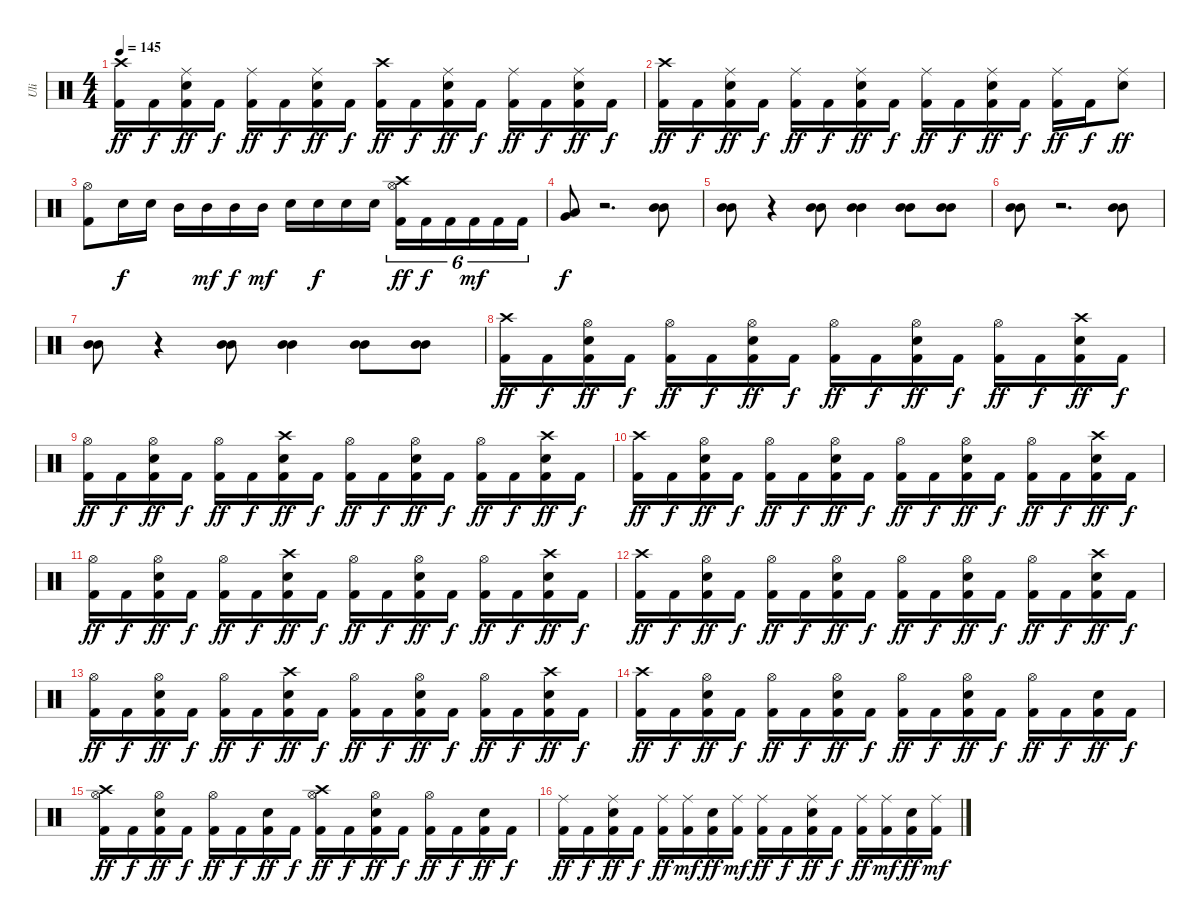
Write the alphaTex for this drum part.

\track ("Uli" "Uli") {instrument percussion}
\staff {score}
\articulation defaults
\ts (4 4)
\tempo 145
\clef neutral
\ks c
("Crash high (hit)" "Kick (hit) 2").16{dy ff} "Kick (hit) 2".16{dy f} ("Ride (middle)" "Electric Snare (hit)" "Kick (hit) 2").16{dy ff} "Kick (hit) 2".16{dy f} ("Ride (middle)" "Kick (hit) 2").16{dy ff} "Kick (hit) 2".16{dy f} ("Ride (middle)" "Electric Snare (hit)" "Kick (hit) 2").16{dy ff} "Kick (hit) 2".16{dy f} ("Crash high (hit)" "Kick (hit) 2").16{dy ff} "Kick (hit) 2".16{dy f} ("Ride (middle)" "Electric Snare (hit)" "Kick (hit) 2").16{dy ff} "Kick (hit) 2".16{dy f} ("Ride (middle)" "Kick (hit) 2").16{dy ff} "Kick (hit) 2".16{dy f} ("Ride (middle)" "Electric Snare (hit)" "Kick (hit) 2").16{dy ff} "Kick (hit) 2".16{dy f} |
("Crash high (hit)" "Kick (hit) 2").16{dy ff} "Kick (hit) 2".16{dy f} ("Ride (middle)" "Electric Snare (hit)" "Kick (hit) 2").16{dy ff} "Kick (hit) 2".16{dy f} ("Ride (middle)" "Kick (hit) 2").16{dy ff} "Kick (hit) 2".16{dy f} ("Ride (middle)" "Electric Snare (hit)" "Kick (hit) 2").16{dy ff} "Kick (hit) 2".16{dy f} ("Ride (middle)" "Kick (hit) 2").16{dy ff} "Kick (hit) 2".16{dy f} ("Ride (middle)" "Electric Snare (hit)" "Kick (hit) 2").16{dy ff} "Kick (hit) 2".16{dy f} ("Ride (middle)" "Kick (hit) 2").16{dy ff} "Kick (hit) 2".16{dy f} ("Ride (middle)" "Electric Snare (hit)").8{dy ff} |
("Hi-Hat (open)" "Kick (hit) 2").8 "Electric Snare (hit)".16{dy f} "Electric Snare (hit)".16 "Mid Tom (hit)".16 "Mid Tom (hit)".16{dy mf} "Mid Tom (hit)".16{dy f} "Mid Tom (hit)".16{dy mf} "Electric Snare (hit)".16 "Electric Snare (hit)".16{dy f} "Electric Snare (hit)".16 "Electric Snare (hit)".16 ("Crash high (hit)" "Hi-Hat (open)" "Kick (hit) 2").16{tu (6 4) dy ff} "Kick (hit) 2".16{tu (6 4) dy f} "Kick (hit) 2".16{tu (6 4)} "Kick (hit) 2".16{tu (6 4) dy mf} "Kick (hit) 2".16{tu (6 4)} "Kick (hit) 2".16{tu (6 4)} |
("Low Tom (hit)" "Very Low Tom (hit)").8{dy f} r.2{d} ("Mid Tom (hit)" "Mid Tom (hit)").8 |
("Mid Tom (hit)" "Mid Tom (hit)").8 r.4 ("Mid Tom (hit)" "Mid Tom (hit)").8 ("Mid Tom (hit)" "Mid Tom (hit)").4 ("Mid Tom (hit)" "Mid Tom (hit)").8 ("Mid Tom (hit)" "Mid Tom (hit)").8 |
("Mid Tom (hit)" "Mid Tom (hit)").8 r.2{d} ("Mid Tom (hit)" "Mid Tom (hit)").8 |
("Mid Tom (hit)" "Mid Tom (hit)").8 r.4 ("Mid Tom (hit)" "Mid Tom (hit)").8 ("Mid Tom (hit)" "Mid Tom (hit)").4 ("Mid Tom (hit)" "Mid Tom (hit)").8 ("Mid Tom (hit)" "Mid Tom (hit)").8 |
("Crash high (hit)" "Kick (hit) 2").16{dy ff} "Kick (hit) 2".16{dy f} ("Hi-Hat (open)" "Electric Snare (hit)" "Kick (hit) 2").16{dy ff} "Kick (hit) 2".16{dy f} ("Hi-Hat (open)" "Kick (hit) 2").16{dy ff} "Kick (hit) 2".16{dy f} ("Hi-Hat (open)" "Electric Snare (hit)" "Kick (hit) 2").16{dy ff} "Kick (hit) 2".16{dy f} ("Hi-Hat (open)" "Kick (hit) 2").16{dy ff} "Kick (hit) 2".16{dy f} ("Hi-Hat (open)" "Electric Snare (hit)" "Kick (hit) 2").16{dy ff} "Kick (hit) 2".16{dy f} ("Hi-Hat (open)" "Kick (hit) 2").16{dy ff} "Kick (hit) 2".16{dy f} ("Crash high (hit)" "Electric Snare (hit)" "Kick (hit) 2").16{dy ff} "Kick (hit) 2".16{dy f} |
("Hi-Hat (open)" "Kick (hit) 2").16{dy ff} "Kick (hit) 2".16{dy f} ("Hi-Hat (open)" "Electric Snare (hit)" "Kick (hit) 2").16{dy ff} "Kick (hit) 2".16{dy f} ("Hi-Hat (open)" "Kick (hit) 2").16{dy ff} "Kick (hit) 2".16{dy f} ("Crash high (hit)" "Electric Snare (hit)" "Kick (hit) 2").16{dy ff} "Kick (hit) 2".16{dy f} ("Hi-Hat (open)" "Kick (hit) 2").16{dy ff} "Kick (hit) 2".16{dy f} ("Hi-Hat (open)" "Electric Snare (hit)" "Kick (hit) 2").16{dy ff} "Kick (hit) 2".16{dy f} ("Hi-Hat (open)" "Kick (hit) 2").16{dy ff} "Kick (hit) 2".16{dy f} ("Crash high (hit)" "Electric Snare (hit)" "Kick (hit) 2").16{dy ff} "Kick (hit) 2".16{dy f} |
("Crash high (hit)" "Kick (hit) 2").16{dy ff} "Kick (hit) 2".16{dy f} ("Hi-Hat (open)" "Electric Snare (hit)" "Kick (hit) 2").16{dy ff} "Kick (hit) 2".16{dy f} ("Hi-Hat (open)" "Kick (hit) 2").16{dy ff} "Kick (hit) 2".16{dy f} ("Hi-Hat (open)" "Electric Snare (hit)" "Kick (hit) 2").16{dy ff} "Kick (hit) 2".16{dy f} ("Hi-Hat (open)" "Kick (hit) 2").16{dy ff} "Kick (hit) 2".16{dy f} ("Hi-Hat (open)" "Electric Snare (hit)" "Kick (hit) 2").16{dy ff} "Kick (hit) 2".16{dy f} ("Hi-Hat (open)" "Kick (hit) 2").16{dy ff} "Kick (hit) 2".16{dy f} ("Crash high (hit)" "Electric Snare (hit)" "Kick (hit) 2").16{dy ff} "Kick (hit) 2".16{dy f} |
("Hi-Hat (open)" "Kick (hit) 2").16{dy ff} "Kick (hit) 2".16{dy f} ("Hi-Hat (open)" "Electric Snare (hit)" "Kick (hit) 2").16{dy ff} "Kick (hit) 2".16{dy f} ("Hi-Hat (open)" "Kick (hit) 2").16{dy ff} "Kick (hit) 2".16{dy f} ("Crash high (hit)" "Electric Snare (hit)" "Kick (hit) 2").16{dy ff} "Kick (hit) 2".16{dy f} ("Hi-Hat (open)" "Kick (hit) 2").16{dy ff} "Kick (hit) 2".16{dy f} ("Hi-Hat (open)" "Electric Snare (hit)" "Kick (hit) 2").16{dy ff} "Kick (hit) 2".16{dy f} ("Hi-Hat (open)" "Kick (hit) 2").16{dy ff} "Kick (hit) 2".16{dy f} ("Crash high (hit)" "Electric Snare (hit)" "Kick (hit) 2").16{dy ff} "Kick (hit) 2".16{dy f} |
("Crash high (hit)" "Kick (hit) 2").16{dy ff} "Kick (hit) 2".16{dy f} ("Hi-Hat (open)" "Electric Snare (hit)" "Kick (hit) 2").16{dy ff} "Kick (hit) 2".16{dy f} ("Hi-Hat (open)" "Kick (hit) 2").16{dy ff} "Kick (hit) 2".16{dy f} ("Hi-Hat (open)" "Electric Snare (hit)" "Kick (hit) 2").16{dy ff} "Kick (hit) 2".16{dy f} ("Hi-Hat (open)" "Kick (hit) 2").16{dy ff} "Kick (hit) 2".16{dy f} ("Hi-Hat (open)" "Electric Snare (hit)" "Kick (hit) 2").16{dy ff} "Kick (hit) 2".16{dy f} ("Hi-Hat (open)" "Kick (hit) 2").16{dy ff} "Kick (hit) 2".16{dy f} ("Crash high (hit)" "Electric Snare (hit)" "Kick (hit) 2").16{dy ff} "Kick (hit) 2".16{dy f} |
("Hi-Hat (open)" "Kick (hit) 2").16{dy ff} "Kick (hit) 2".16{dy f} ("Hi-Hat (open)" "Electric Snare (hit)" "Kick (hit) 2").16{dy ff} "Kick (hit) 2".16{dy f} ("Hi-Hat (open)" "Kick (hit) 2").16{dy ff} "Kick (hit) 2".16{dy f} ("Crash high (hit)" "Electric Snare (hit)" "Kick (hit) 2").16{dy ff} "Kick (hit) 2".16{dy f} ("Hi-Hat (open)" "Kick (hit) 2").16{dy ff} "Kick (hit) 2".16{dy f} ("Hi-Hat (open)" "Electric Snare (hit)" "Kick (hit) 2").16{dy ff} "Kick (hit) 2".16{dy f} ("Hi-Hat (open)" "Kick (hit) 2").16{dy ff} "Kick (hit) 2".16{dy f} ("Crash high (hit)" "Electric Snare (hit)" "Kick (hit) 2").16{dy ff} "Kick (hit) 2".16{dy f} |
("Crash high (hit)" "Kick (hit) 2").16{dy ff} "Kick (hit) 2".16{dy f} ("Hi-Hat (open)" "Electric Snare (hit)" "Kick (hit) 2").16{dy ff} "Kick (hit) 2".16{dy f} ("Hi-Hat (open)" "Kick (hit) 2").16{dy ff} "Kick (hit) 2".16{dy f} ("Hi-Hat (open)" "Electric Snare (hit)" "Kick (hit) 2").16{dy ff} "Kick (hit) 2".16{dy f} ("Hi-Hat (open)" "Kick (hit) 2").16{dy ff} "Kick (hit) 2".16{dy f} ("Hi-Hat (open)" "Electric Snare (hit)" "Kick (hit) 2").16{dy ff} "Kick (hit) 2".16{dy f} ("Hi-Hat (open)" "Kick (hit) 2").16{dy ff} "Kick (hit) 2".16{dy f} ("Electric Snare (hit)" "Kick (hit) 2").16{dy ff} "Kick (hit) 2".16{dy f} |
("Crash high (hit)" "Hi-Hat (open)" "Kick (hit) 2").16{dy ff} "Kick (hit) 2".16{dy f} ("Hi-Hat (open)" "Electric Snare (hit)" "Kick (hit) 2").16{dy ff} "Kick (hit) 2".16{dy f} ("Hi-Hat (open)" "Kick (hit) 2").16{dy ff} "Kick (hit) 2".16{dy f} ("Electric Snare (hit)" "Kick (hit) 2").16{dy ff} "Kick (hit) 2".16{dy f} ("Crash high (hit)" "Hi-Hat (open)" "Kick (hit) 2").16{dy ff} "Kick (hit) 2".16{dy f} ("Hi-Hat (open)" "Electric Snare (hit)" "Kick (hit) 2").16{dy ff} "Kick (hit) 2".16{dy f} ("Hi-Hat (open)" "Kick (hit) 2").16{dy ff} "Kick (hit) 2".16{dy f} ("Electric Snare (hit)" "Kick (hit) 2").16{dy ff} "Kick (hit) 2".16{dy f} |
("Ride (middle)" "Kick (hit) 2").16{dy ff} "Kick (hit) 2".16{dy f} ("Ride (middle)" "Electric Snare (hit)" "Kick (hit) 2").16{dy ff} "Kick (hit) 2".16{dy f} ("Ride (middle)" "Kick (hit) 2").16{dy ff} ("Ride (middle)" "Kick (hit) 2").16{dy mf} ("Electric Snare (hit)" "Kick (hit) 2").16{dy ff} ("Ride (middle)" "Kick (hit) 2").16{dy mf} ("Ride (middle)" "Kick (hit) 2").16{dy ff} "Kick (hit) 2".16{dy f} ("Ride (middle)" "Electric Snare (hit)" "Kick (hit) 2").16{dy ff} "Kick (hit) 2".16{dy f} ("Ride (middle)" "Kick (hit) 2").16{dy ff} ("Ride (middle)" "Kick (hit) 2").16{dy mf} ("Electric Snare (hit)" "Kick (hit) 2").16{dy ff} ("Ride (middle)" "Kick (hit) 2").16{dy mf}
